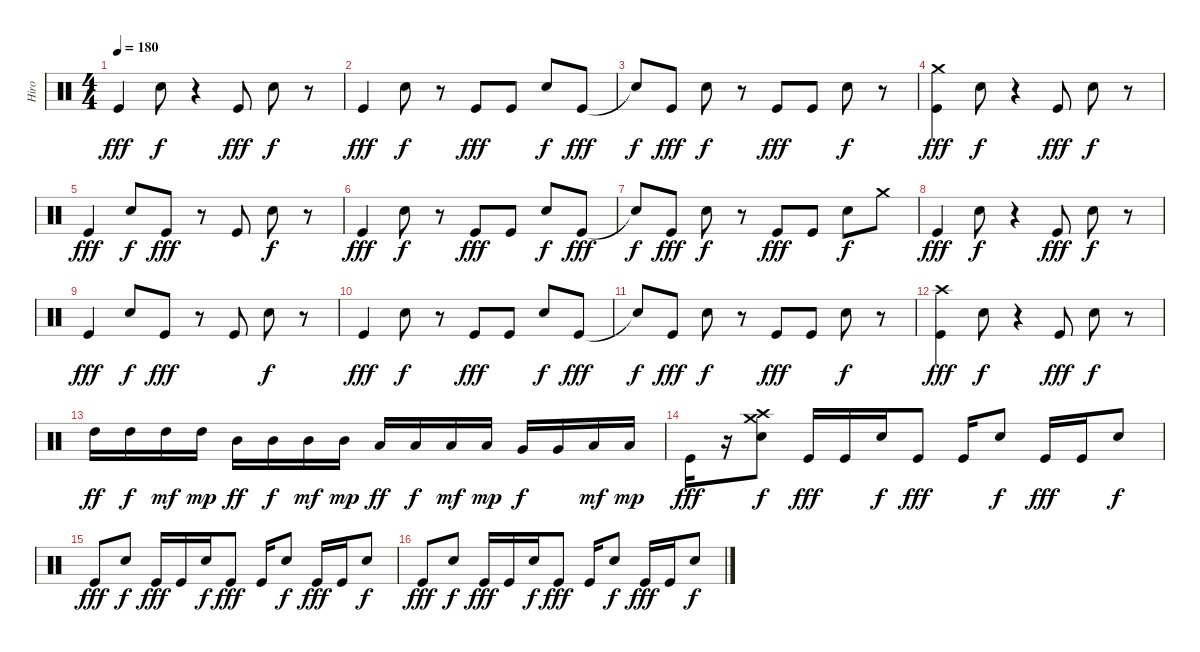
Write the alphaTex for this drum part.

\track ("Hiro" "Hiro") {instrument percussion}
\staff {score}
\articulation defaults
\ts (4 4)
\tempo 180
\clef neutral
\ks c "Kick (hit)".4{dy fff} "Electric Snare (hit)".8{dy f}
r.4 "Kick (hit)".8{dy fff} "Electric Snare (hit)".8{dy f} r.8 |
"Kick (hit)".4{dy fff} "Electric Snare (hit)".8{dy f} r.8 "Kick (hit)".8{dy fff} "Kick (hit)".8 "Electric Snare (hit)".8{dy f} "Kick (hit)".8{dy fff} |
"Snare (hit)"{t}.8{dy f} "Kick (hit)".8{dy fff} "Electric Snare (hit)".8{dy f} r.8 "Kick (hit)".8{dy fff} "Kick (hit)".8 "Electric Snare (hit)".8{dy f} r.8 |
("Crash medium (hit)" "Kick (hit)").4{dy fff} "Electric Snare (hit)".8{dy f} r.4 "Kick (hit)".8{dy fff} "Electric Snare (hit)".8{dy f} r.8 |
"Kick (hit)".4{dy fff} "Electric Snare (hit)".8{dy f} "Kick (hit)".8{dy fff} r.8 "Kick (hit)".8 "Electric Snare (hit)".8{dy f} r.8 |
"Kick (hit)".4{dy fff} "Electric Snare (hit)".8{dy f} r.8 "Kick (hit)".8{dy fff} "Kick (hit)".8 "Electric Snare (hit)".8{dy f} "Kick (hit)".8{dy fff} |
"Snare (hit)"{t}.8{dy f} "Kick (hit)".8{dy fff} "Electric Snare (hit)".8{dy f} r.8 "Kick (hit)".8{dy fff} "Kick (hit)".8 "Electric Snare (hit)".8{dy f} "Crash medium (hit)".8 |
"Kick (hit)".4{dy fff} "Electric Snare (hit)".8{dy f} r.4 "Kick (hit)".8{dy fff} "Electric Snare (hit)".8{dy f} r.8 |
"Kick (hit)".4{dy fff} "Electric Snare (hit)".8{dy f} "Kick (hit)".8{dy fff} r.8 "Kick (hit)".8 "Electric Snare (hit)".8{dy f} r.8 |
"Kick (hit)".4{dy fff} "Electric Snare (hit)".8{dy f} r.8 "Kick (hit)".8{dy fff} "Kick (hit)".8 "Electric Snare (hit)".8{dy f} "Kick (hit)".8{dy fff} |
"Snare (hit)"{t}.8{dy f} "Kick (hit)".8{dy fff} "Electric Snare (hit)".8{dy f} r.8 "Kick (hit)".8{dy fff} "Kick (hit)".8 "Electric Snare (hit)".8{dy f} r.8 |
("Crash high (hit)" "Kick (hit)").4{dy fff} "Electric Snare (hit)".8{dy f} r.4 "Kick (hit)".8{dy fff} "Electric Snare (hit)".8{dy f} r.8 |
"High Tom (hit)".16{dy ff} "High Tom (hit)".16{dy f} "High Tom (hit)".16{dy mf} "High Tom (hit)".16{dy mp} "Mid Tom (hit)".16{dy ff} "Mid Tom (hit)".16{dy f} "Mid Tom (hit)".16{dy mf} "Mid Tom (hit)".16{dy mp} "Low Tom (hit)".16{dy ff} "Low Tom (hit)".16{dy f} "Low Tom (hit)".16{dy mf} "Low Tom (hit)".16{dy mp} "Very Low Tom (hit)".16{dy f} "Very Low Tom (hit)".16 "Low Floor Tom (hit)".16{dy mf} "Low Floor Tom (hit)".16{dy mp} |
"Kick (hit)".16{dy fff} r.16 ("Crash high (hit)" "Electric Snare (hit)" "Crash medium (hit)").8{dy f} "Kick (hit)".16{dy fff} "Kick (hit)".16 "Electric Snare (hit)".16{dy f} "Kick (hit)".8{dy fff} "Kick (hit)".16 "Electric Snare (hit)".8{dy f} "Kick (hit)".16{dy fff} "Kick (hit)".16 "Electric Snare (hit)".8{dy f} |
"Kick (hit)".8{dy fff} "Electric Snare (hit)".8{dy f} "Kick (hit)".16{dy fff} "Kick (hit)".16 "Electric Snare (hit)".16{dy f} "Kick (hit)".8{dy fff} "Kick (hit)".16 "Electric Snare (hit)".8{dy f} "Kick (hit)".16{dy fff} "Kick (hit)".16 "Electric Snare (hit)".8{dy f} |
"Kick (hit)".8{dy fff} "Electric Snare (hit)".8{dy f} "Kick (hit)".16{dy fff} "Kick (hit)".16 "Electric Snare (hit)".16{dy f} "Kick (hit)".8{dy fff} "Kick (hit)".16 "Electric Snare (hit)".8{dy f} "Kick (hit)".16{dy fff} "Kick (hit)".16 "Electric Snare (hit)".8{dy f}
